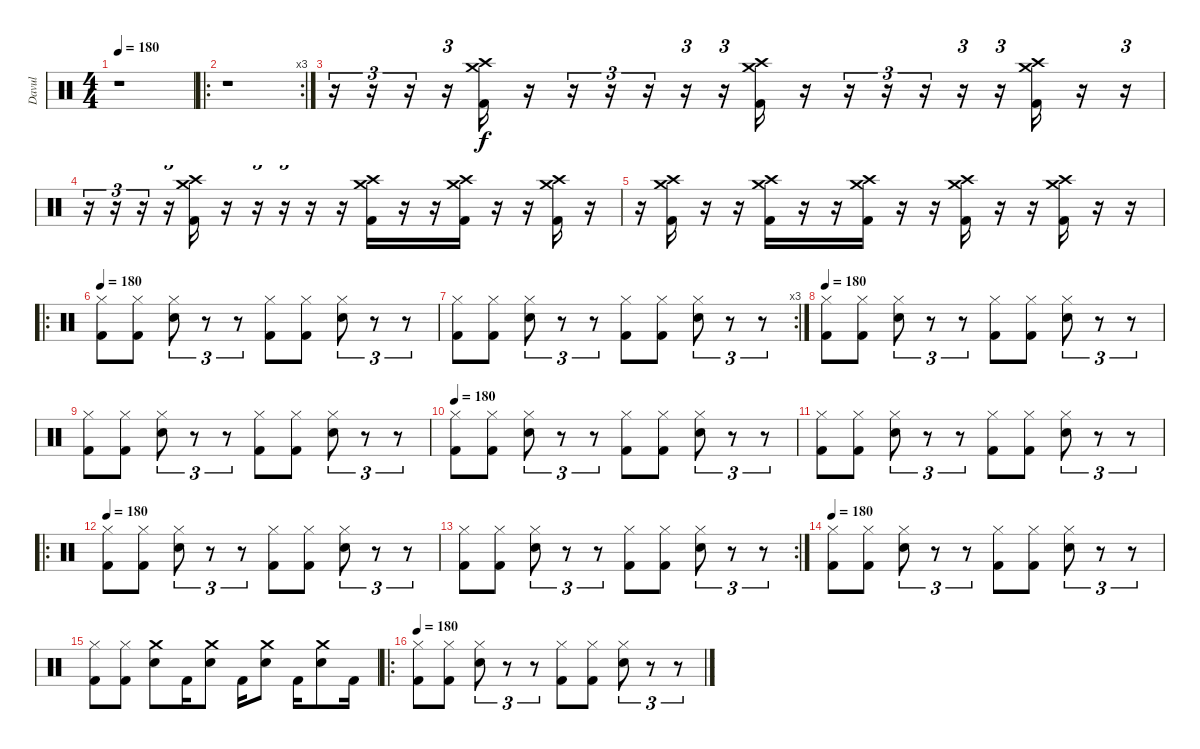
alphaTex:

\track ("Davul" "Davul") {instrument percussion}
\staff {score}
\articulation defaults
\ts (4 4)
\tempo 180
\tempo 120
\tempo 180
\clef neutral
\ks c
r.1{dy f} |
\ro
\rc 3
r.1 |
r.16{tu (3 2)} r.16{tu (3 2) volume 0} r.16{tu (3 2)} r.16{tu (3 2)} ("Crash high (hit)" "Crash medium (hit)" "Kick (hit) 2").16{volume 13} r.16 r.16{tu (3 2)} r.16{tu (3 2) volume 0} r.16{tu (3 2)} r.16{tu (3 2)} r.16{tu (3 2)} ("Crash high (hit)" "Crash medium (hit)" "Kick (hit) 2").16{volume 13} r.16 r.16{tu (3 2)} r.16{tu (3 2) volume 0} r.16{tu (3 2)} r.16{tu (3 2)} r.16{tu (3 2)} ("Crash high (hit)" "Crash medium (hit)" "Kick (hit) 2").16{volume 13} r.16 r.16{tu (3 2)} |
r.16{tu (3 2) volume 0} r.16{tu (3 2)} r.16{tu (3 2)} r.16{tu (3 2)} ("Crash high (hit)" "Crash medium (hit)" "Kick (hit) 2").16{volume 13} r.16 r.16{tu (3 2)} r.16{tu (3 2) volume 0} r.16 r.16 ("Crash high (hit)" "Crash medium (hit)" "Kick (hit) 2").16{volume 13} r.16{volume 0} r.16 ("Crash high (hit)" "Crash medium (hit)" "Kick (hit) 2").16{volume 13} r.16{volume 0} r.16 ("Crash high (hit)" "Crash medium (hit)" "Kick (hit) 2").16{volume 13} r.16{volume 0} |
r.16 ("Crash high (hit)" "Crash medium (hit)" "Kick (hit) 2").16{volume 13} r.16{volume 0} r.16 ("Crash high (hit)" "Crash medium (hit)" "Kick (hit) 2").16{volume 13} r.16{volume 0} r.16 ("Crash high (hit)" "Crash medium (hit)" "Kick (hit) 2").16{volume 13} r.16{volume 0} r.16 ("Crash high (hit)" "Crash medium (hit)" "Kick (hit) 2").16{volume 13} r.16{volume 0} r.16 ("Crash high (hit)" "Crash medium (hit)" "Kick (hit) 2").16{volume 13} r.16{volume 0} r.16 |
\ro
\tempo 180
("Hi-Hat (closed)" "Kick (hit) 2").8{volume 13} ("Hi-Hat (closed)" "Kick (hit) 2").8 ("Hi-Hat (closed)" "Snare (hit) 2").8{tu (3 2)} r.8{tu (3 2)} r.8{tu (3 2)} ("Hi-Hat (closed)" "Kick (hit) 2").8 ("Hi-Hat (closed)" "Kick (hit) 2").8 ("Hi-Hat (closed)" "Snare (hit) 2").8{tu (3 2)} r.8{tu (3 2)} r.8{tu (3 2)} |
\rc 3
("Hi-Hat (closed)" "Kick (hit) 2").8 ("Hi-Hat (closed)" "Kick (hit) 2").8 ("Hi-Hat (closed)" "Snare (hit) 2").8{tu (3 2)} r.8{tu (3 2)} r.8{tu (3 2)} ("Hi-Hat (closed)" "Kick (hit) 2").8 ("Hi-Hat (closed)" "Kick (hit) 2").8 ("Hi-Hat (closed)" "Snare (hit) 2").8{tu (3 2)} r.8{tu (3 2)} r.8{tu (3 2)} |
\tempo 180
("Hi-Hat (closed)" "Kick (hit) 2").8 ("Hi-Hat (closed)" "Kick (hit) 2").8 ("Hi-Hat (closed)" "Snare (hit) 2").8{tu (3 2)} r.8{tu (3 2)} r.8{tu (3 2)} ("Hi-Hat (closed)" "Kick (hit) 2").8 ("Hi-Hat (closed)" "Kick (hit) 2").8 ("Hi-Hat (closed)" "Snare (hit) 2").8{tu (3 2)} r.8{tu (3 2)} r.8{tu (3 2)} |
("Hi-Hat (closed)" "Kick (hit) 2").8 ("Hi-Hat (closed)" "Kick (hit) 2").8 ("Hi-Hat (closed)" "Snare (hit) 2").8{tu (3 2)} r.8{tu (3 2)} r.8{tu (3 2)} ("Hi-Hat (closed)" "Kick (hit) 2").8 ("Hi-Hat (closed)" "Kick (hit) 2").8 ("Hi-Hat (closed)" "Snare (hit) 2").8{tu (3 2)} r.8{tu (3 2)} r.8{tu (3 2)} |
\tempo 180
("Hi-Hat (closed)" "Kick (hit) 2").8 ("Hi-Hat (closed)" "Kick (hit) 2").8 ("Hi-Hat (closed)" "Snare (hit) 2").8{tu (3 2)} r.8{tu (3 2)} r.8{tu (3 2)} ("Hi-Hat (closed)" "Kick (hit) 2").8 ("Hi-Hat (closed)" "Kick (hit) 2").8 ("Hi-Hat (closed)" "Snare (hit) 2").8{tu (3 2)} r.8{tu (3 2)} r.8{tu (3 2)} |
("Hi-Hat (closed)" "Kick (hit) 2").8 ("Hi-Hat (closed)" "Kick (hit) 2").8 ("Hi-Hat (closed)" "Snare (hit) 2").8{tu (3 2)} r.8{tu (3 2)} r.8{tu (3 2)} ("Hi-Hat (closed)" "Kick (hit) 2").8 ("Hi-Hat (closed)" "Kick (hit) 2").8 ("Hi-Hat (closed)" "Snare (hit) 2").8{tu (3 2)} r.8{tu (3 2)} r.8{tu (3 2)} |
\ro
\tempo 180
("Hi-Hat (closed)" "Kick (hit) 2").8 ("Hi-Hat (closed)" "Kick (hit) 2").8 ("Hi-Hat (closed)" "Snare (hit) 2").8{tu (3 2)} r.8{tu (3 2)} r.8{tu (3 2)} ("Hi-Hat (closed)" "Kick (hit) 2").8 ("Hi-Hat (closed)" "Kick (hit) 2").8 ("Hi-Hat (closed)" "Snare (hit) 2").8{tu (3 2)} r.8{tu (3 2)} r.8{tu (3 2)} |
\rc 2
("Hi-Hat (closed)" "Kick (hit) 2").8 ("Hi-Hat (closed)" "Kick (hit) 2").8 ("Hi-Hat (closed)" "Snare (hit) 2").8{tu (3 2)} r.8{tu (3 2)} r.8{tu (3 2)} ("Hi-Hat (closed)" "Kick (hit) 2").8 ("Hi-Hat (closed)" "Kick (hit) 2").8 ("Hi-Hat (closed)" "Snare (hit) 2").8{tu (3 2)} r.8{tu (3 2)} r.8{tu (3 2)} |
\tempo 180
("Hi-Hat (closed)" "Kick (hit) 2").8 ("Hi-Hat (closed)" "Kick (hit) 2").8 ("Hi-Hat (closed)" "Snare (hit) 2").8{tu (3 2)} r.8{tu (3 2)} r.8{tu (3 2)} ("Hi-Hat (closed)" "Kick (hit) 2").8 ("Hi-Hat (closed)" "Kick (hit) 2").8 ("Hi-Hat (closed)" "Snare (hit) 2").8{tu (3 2)} r.8{tu (3 2)} r.8{tu (3 2)} |
("Hi-Hat (closed)" "Kick (hit) 2").8 ("Hi-Hat (closed)" "Kick (hit) 2").8 ("Crash medium (hit)" "Snare (hit) 2").8 "Kick (hit) 2".16 ("Crash medium (hit)" "Snare (hit) 2").8 "Kick (hit) 2".16 ("Crash medium (hit)" "Snare (hit) 2").8 "Kick (hit) 2".16 ("Crash medium (hit)" "Snare (hit) 2").8 "Kick (hit) 2".16 |
\ro
\tempo 180
("Hi-Hat (closed)" "Kick (hit) 2").8 ("Hi-Hat (closed)" "Kick (hit) 2").8 ("Hi-Hat (closed)" "Snare (hit) 2").8{tu (3 2)} r.8{tu (3 2)} r.8{tu (3 2)} ("Hi-Hat (closed)" "Kick (hit) 2").8 ("Hi-Hat (closed)" "Kick (hit) 2").8 ("Hi-Hat (closed)" "Snare (hit) 2").8{tu (3 2)} r.8{tu (3 2)} r.8{tu (3 2)}
